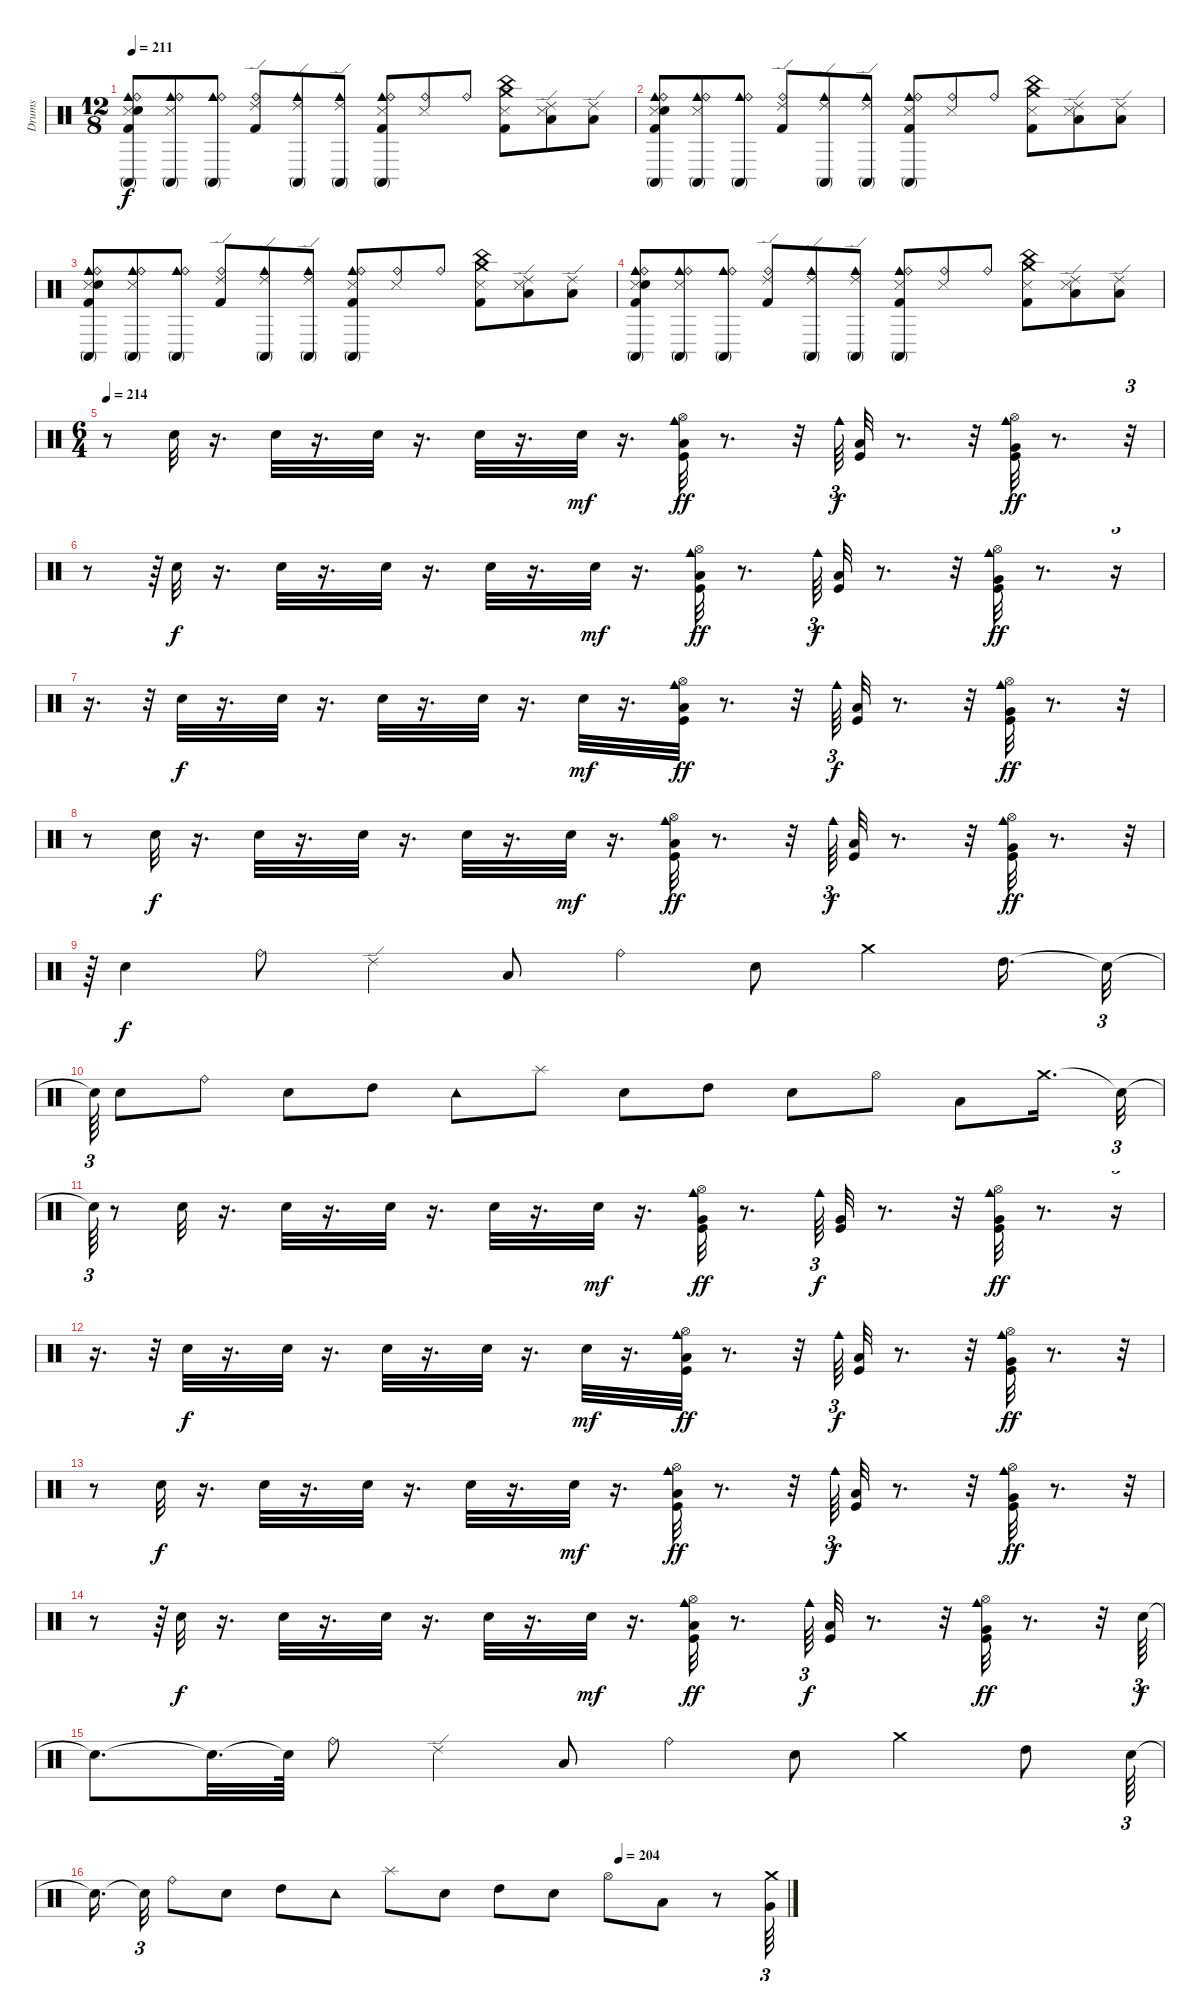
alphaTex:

\track ("Drums" "Drums") {instrument percussion}
\staff {score}
\articulation defaults
\ts (12 8)
\tempo 211
\clef neutral
\ks c
("Conga high (mute)" "Kick (hit) 2" "Snare (side stick) 3" "Snare (hit) 2" "Cowbell medium (hit)" "Ride (bell)").8{dy f} ("Snare (side stick) 3" "Cowbell medium (hit)" "Conga high (mute)" "Ride (bell)").8 ("Cowbell medium (hit)" "Conga high (mute)" "Ride (bell)").8 ("Ride (edge) 2" "Kick (hit) 2" "Ride (bell)").8 ("Conga high (mute)" "Ride (edge) 2" "Cowbell medium (hit)").8 ("Cowbell medium (hit)" "Conga high (mute)" "Ride (edge) 2").8 ("Cowbell medium (hit)" "Conga high (mute)" "Kick (hit) 2" "Snare (side stick) 3" "Ride (bell)").8 ("Snare (side stick) 3" "Ride (bell)").8 "Ride (bell)".8 ("China (hit)" "Crash medium (hit)" "Kick (hit) 2" "Snare (side stick) 3").8 ("Ride (edge) 2" "Low Tom (hit)" "Snare (side stick) 3").8 ("Ride (edge) 2" "Low Tom (hit)").8 |
("Conga high (mute)" "Kick (hit) 2" "Snare (side stick) 3" "Snare (hit) 2" "Cowbell medium (hit)" "Ride (bell)").8 ("Snare (side stick) 3" "Cowbell medium (hit)" "Conga high (mute)" "Ride (bell)").8 ("Cowbell medium (hit)" "Conga high (mute)" "Ride (bell)").8 ("Ride (edge) 2" "Kick (hit) 2" "Ride (bell)").8 ("Conga high (mute)" "Ride (edge) 2" "Cowbell medium (hit)").8 ("Cowbell medium (hit)" "Conga high (mute)" "Ride (edge) 2").8 ("Cowbell medium (hit)" "Conga high (mute)" "Kick (hit) 2" "Snare (side stick) 3" "Ride (bell)").8 ("Snare (side stick) 3" "Ride (bell)").8 "Ride (bell)".8 ("China (hit)" "Crash medium (hit)" "Kick (hit) 2" "Snare (side stick) 3").8 ("Ride (edge) 2" "Low Tom (hit)" "Snare (side stick) 3").8 ("Ride (edge) 2" "Low Tom (hit)").8 |
("Conga high (mute)" "Kick (hit) 2" "Snare (side stick) 3" "Snare (hit) 2" "Cowbell medium (hit)" "Ride (bell)").8 ("Snare (side stick) 3" "Cowbell medium (hit)" "Conga high (mute)" "Ride (bell)").8 ("Cowbell medium (hit)" "Conga high (mute)" "Ride (bell)").8 ("Ride (edge) 2" "Kick (hit) 2" "Ride (bell)").8 ("Conga high (mute)" "Ride (edge) 2" "Cowbell medium (hit)").8 ("Cowbell medium (hit)" "Conga high (mute)" "Ride (edge) 2").8 ("Cowbell medium (hit)" "Conga high (mute)" "Kick (hit) 2" "Snare (side stick) 3" "Ride (bell)").8 ("Snare (side stick) 3" "Ride (bell)").8 "Ride (bell)".8 ("China (hit)" "Crash medium (hit)" "Kick (hit) 2" "Snare (side stick) 3").8 ("Ride (edge) 2" "Low Tom (hit)" "Snare (side stick) 3").8 ("Ride (edge) 2" "Low Tom (hit)").8 |
("Conga high (mute)" "Kick (hit) 2" "Snare (side stick) 3" "Snare (hit) 2" "Cowbell medium (hit)" "Ride (bell)").8 ("Snare (side stick) 3" "Cowbell medium (hit)" "Conga high (mute)" "Ride (bell)").8 ("Cowbell medium (hit)" "Conga high (mute)" "Ride (bell)").8 ("Ride (edge) 2" "Kick (hit) 2" "Ride (bell)").8 ("Conga high (mute)" "Ride (edge) 2" "Cowbell medium (hit)").8 ("Cowbell medium (hit)" "Conga high (mute)" "Ride (edge) 2").8 ("Cowbell medium (hit)" "Conga high (mute)" "Kick (hit) 2" "Snare (side stick) 3" "Ride (bell)").8 ("Snare (side stick) 3" "Ride (bell)").8 "Ride (bell)".8 ("China (hit)" "Crash medium (hit)" "Kick (hit) 2" "Snare (side stick) 3").8 ("Ride (edge) 2" "Low Tom (hit)" "Snare (side stick) 3").8 ("Ride (edge) 2" "Low Tom (hit)").8 |
\ts (6 4)
\tempo 214
r.8 "Snare (hit) 2".32 r.16{d} "Snare (hit) 2".32 r.16{d} "Snare (hit) 2".32 r.16{d} "Snare (hit) 2".32 r.16{d} "Snare (hit) 2".32{dy mf} r.16{d} ("Kick (hit)" "Hi-Hat (open)" "Cowbell medium (hit)" "Low Floor Tom (hit)").32{dy ff} r.8{d} r.32 "Cowbell medium (hit)".64{tu (3 2) dy f} ("Kick (hit)" "Low Floor Tom (hit)").32 r.8{d} r.32 ("Hi-Hat (open)" "Kick (hit)" "Cowbell medium (hit)" "Very Low Tom (hit)").32{dy ff} r.8{d} r.32{tu (3 2)} |
r.8 r.64{tu (3 2)} "Snare (hit) 2".32{dy f} r.16{d} "Snare (hit) 2".32 r.16{d} "Snare (hit) 2".32 r.16{d} "Snare (hit) 2".32 r.16{d} "Snare (hit) 2".32{dy mf} r.16{d} ("Kick (hit)" "Hi-Hat (open)" "Cowbell medium (hit)" "Low Floor Tom (hit)").32{dy ff} r.8{d} "Cowbell medium (hit)".64{tu (3 2) dy f} ("Kick (hit)" "Low Floor Tom (hit)").32 r.8{d} r.32 ("Hi-Hat (open)" "Kick (hit)" "Cowbell medium (hit)" "Very Low Tom (hit)").32{dy ff} r.8{d} r.16{tu (3 2)} |
r.16{d} r.32{tu (3 2)} "Snare (hit) 2".32{dy f} r.16{d} "Snare (hit) 2".32 r.16{d} "Snare (hit) 2".32 r.16{d} "Snare (hit) 2".32 r.16{d} "Snare (hit) 2".32{dy mf} r.16{d} ("Kick (hit)" "Hi-Hat (open)" "Cowbell medium (hit)" "Low Floor Tom (hit)").32{dy ff} r.8{d} r.32 "Cowbell medium (hit)".64{tu (3 2) dy f} ("Kick (hit)" "Low Floor Tom (hit)").32 r.8{d} r.32 ("Hi-Hat (open)" "Kick (hit)" "Cowbell medium (hit)" "Very Low Tom (hit)").32{dy ff} r.8{d} r.32 |
r.8 "Snare (hit) 2".32{dy f} r.16{d} "Snare (hit) 2".32 r.16{d} "Snare (hit) 2".32 r.16{d} "Snare (hit) 2".32 r.16{d} "Snare (hit) 2".32{dy mf} r.16{d} ("Kick (hit)" "Hi-Hat (open)" "Cowbell medium (hit)" "Low Floor Tom (hit)").32{dy ff} r.8{d} r.32 "Cowbell medium (hit)".64{tu (3 2) dy f} ("Kick (hit)" "Low Floor Tom (hit)").32 r.8{d} r.32 ("Hi-Hat (open)" "Kick (hit)" "Cowbell medium (hit)" "Very Low Tom (hit)").32{dy ff} r.8{d} r.32{tu (3 2)} |
r.64{tu (3 2)} "Electric Snare (hit)".4{dy f} "Ride (bell)".8 "Ride (edge) 2".4 "Low Tom (hit)".8 "Ride (bell)".4 "Electric Snare (hit)".8 "Crash medium (hit)".4 "High Tom (hit)".16{d} "Snare (hit)"{t}.32{tu (3 2)} |
"Snare (hit)"{t}.64{tu (3 2)} "Snare (hit) 2".8 "Ride (bell)".8 "Snare (hit) 2".8 "High Tom (hit)".8 "Tambourine (hit)".8 "Splash (hit)".8 "Snare (hit) 2".8 "High Tom (hit)".8 "Snare (hit) 2".8 "Hi-Hat (open)".8 "Low Tom (hit)".8 "Crash medium (hit)".16{d} "Snare (hit)"{t}.32{tu (3 2)} |
"Snare (hit)"{t}.64{tu (3 2)} r.8 "Snare (hit) 2".32 r.16{d} "Snare (hit) 2".32 r.16{d} "Snare (hit) 2".32 r.16{d} "Snare (hit) 2".32 r.16{d} "Electric Snare (hit)".32{dy mf} r.16{d} ("Very Low Tom (hit)" "Kick (hit)" "Hi-Hat (open)" "Cowbell medium (hit)").32{dy ff} r.8{d} "Cowbell medium (hit)".64{tu (3 2) dy f} ("Very Low Tom (hit)" "Kick (hit)").32 r.8{d} r.32 ("Very Low Tom (hit)" "Hi-Hat (open)" "Kick (hit)" "Cowbell medium (hit)").32{dy ff} r.8{d} r.16{tu (3 2)} |
r.16{d} r.32{tu (3 2)} "Snare (hit) 2".32{dy f} r.16{d} "Snare (hit) 2".32 r.16{d} "Snare (hit) 2".32 r.16{d} "Snare (hit) 2".32 r.16{d} "Snare (hit) 2".32{dy mf} r.16{d} ("Kick (hit)" "Hi-Hat (open)" "Cowbell medium (hit)" "Low Floor Tom (hit)").32{dy ff} r.8{d} r.32 "Cowbell medium (hit)".64{tu (3 2) dy f} ("Kick (hit)" "Low Floor Tom (hit)").32 r.8{d} r.32 ("Hi-Hat (open)" "Kick (hit)" "Cowbell medium (hit)" "Very Low Tom (hit)").32{dy ff} r.8{d} r.32 |
r.8 "Snare (hit) 2".32{dy f} r.16{d} "Snare (hit) 2".32 r.16{d} "Snare (hit) 2".32 r.16{d} "Snare (hit) 2".32 r.16{d} "Snare (hit) 2".32{dy mf} r.16{d} ("Kick (hit)" "Hi-Hat (open)" "Cowbell medium (hit)" "Low Floor Tom (hit)").32{dy ff} r.8{d} r.32 "Cowbell medium (hit)".64{tu (3 2) dy f} ("Kick (hit)" "Low Floor Tom (hit)").32 r.8{d} r.32 ("Hi-Hat (open)" "Kick (hit)" "Cowbell medium (hit)" "Very Low Tom (hit)").32{dy ff} r.8{d} r.32{tu (3 2)} |
r.8 r.64{tu (3 2)} "Snare (hit) 2".32{dy f} r.16{d} "Snare (hit) 2".32 r.16{d} "Snare (hit) 2".32 r.16{d} "Snare (hit) 2".32 r.16{d} "Snare (hit) 2".32{dy mf} r.16{d} ("Kick (hit)" "Hi-Hat (open)" "Cowbell medium (hit)" "Low Floor Tom (hit)").32{dy ff} r.8{d} "Cowbell medium (hit)".64{tu (3 2) dy f} ("Kick (hit)" "Low Floor Tom (hit)").32 r.8{d} r.32 ("Hi-Hat (open)" "Kick (hit)" "Cowbell medium (hit)" "Very Low Tom (hit)").32{dy ff} r.8{d} r.32 "Electric Snare (hit)".64{tu (3 2) dy f} |
"Snare (hit)"{t}.8{d} "Snare (hit)"{t}.32{d} "Snare (hit)"{t}.64 "Ride (bell)".8 "Ride (edge) 2".4 "Low Tom (hit)".8 "Ride (bell)".4 "Electric Snare (hit)".8 "Crash medium (hit)".4 "High Tom (hit)".8 "Snare (hit) 2".64{tu (3 2)} |
\tempo (204 0.7569444444444444)
"Snare (hit)"{t}.16{d} "Snare (hit)"{t}.32{tu (3 2)} "Ride (bell)".8 "Snare (hit) 2".8 "High Tom (hit)".8 "Tambourine (hit)".8 "Splash (hit)".8 "Snare (hit) 2".8 "High Tom (hit)".8 "Snare (hit) 2".8 "Hi-Hat (open)".8 "Low Tom (hit)".8 r.8 ("Very Low Tom (hit)" "Crash medium (hit)").64{tu (3 2)}
